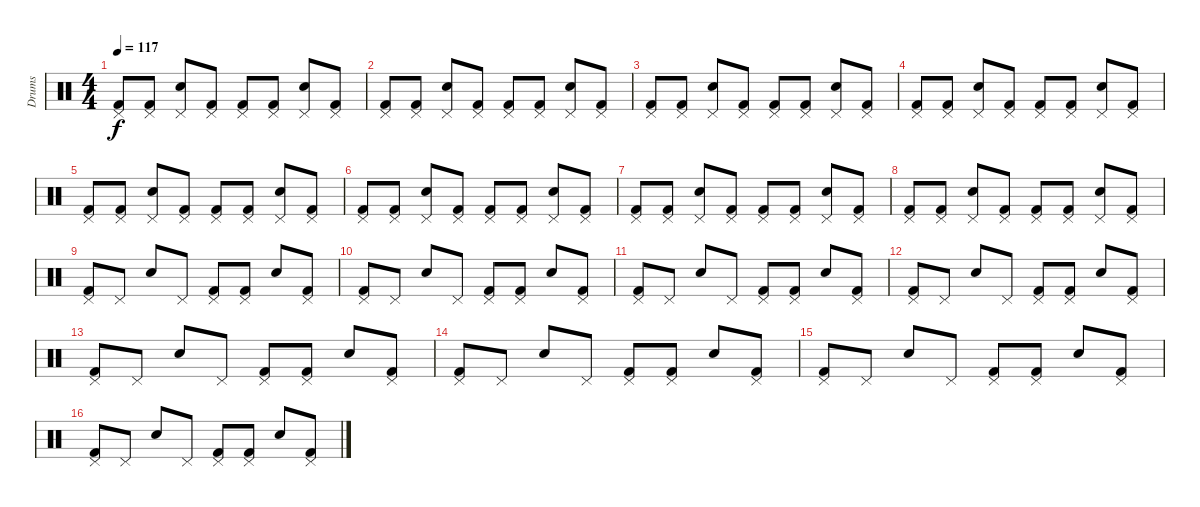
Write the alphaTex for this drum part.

\track ("Drums" "Drums") {instrument percussion}
\staff {score}
\articulation defaults
\ts (4 4)
\tempo 117
\clef neutral
\ks c
("Pedal Hi-Hat (hit)" "Kick (hit) 2").8{dy f} ("Pedal Hi-Hat (hit)" "Kick (hit) 2").8 ("Snare (hit) 2" "Pedal Hi-Hat (hit)").8 ("Pedal Hi-Hat (hit)" "Kick (hit) 2").8 ("Pedal Hi-Hat (hit)" "Kick (hit) 2").8 ("Pedal Hi-Hat (hit)" "Kick (hit) 2").8 ("Snare (hit) 2" "Pedal Hi-Hat (hit)").8 ("Pedal Hi-Hat (hit)" "Kick (hit) 2").8 |
("Pedal Hi-Hat (hit)" "Kick (hit) 2").8 ("Pedal Hi-Hat (hit)" "Kick (hit) 2").8 ("Snare (hit) 2" "Pedal Hi-Hat (hit)").8 ("Pedal Hi-Hat (hit)" "Kick (hit) 2").8 ("Pedal Hi-Hat (hit)" "Kick (hit) 2").8 ("Pedal Hi-Hat (hit)" "Kick (hit) 2").8 ("Snare (hit) 2" "Pedal Hi-Hat (hit)").8 ("Pedal Hi-Hat (hit)" "Kick (hit) 2").8 |
("Pedal Hi-Hat (hit)" "Kick (hit) 2").8 ("Pedal Hi-Hat (hit)" "Kick (hit) 2").8 ("Snare (hit) 2" "Pedal Hi-Hat (hit)").8 ("Pedal Hi-Hat (hit)" "Kick (hit) 2").8 ("Pedal Hi-Hat (hit)" "Kick (hit) 2").8 ("Pedal Hi-Hat (hit)" "Kick (hit) 2").8 ("Snare (hit) 2" "Pedal Hi-Hat (hit)").8 ("Pedal Hi-Hat (hit)" "Kick (hit) 2").8 |
("Pedal Hi-Hat (hit)" "Kick (hit) 2").8 ("Pedal Hi-Hat (hit)" "Kick (hit) 2").8 ("Snare (hit) 2" "Pedal Hi-Hat (hit)").8 ("Pedal Hi-Hat (hit)" "Kick (hit) 2").8 ("Pedal Hi-Hat (hit)" "Kick (hit) 2").8 ("Pedal Hi-Hat (hit)" "Kick (hit) 2").8 ("Snare (hit) 2" "Pedal Hi-Hat (hit)").8 ("Pedal Hi-Hat (hit)" "Kick (hit) 2").8 |
("Pedal Hi-Hat (hit)" "Kick (hit) 2").8 ("Pedal Hi-Hat (hit)" "Kick (hit) 2").8 ("Snare (hit) 2" "Pedal Hi-Hat (hit)").8 ("Pedal Hi-Hat (hit)" "Kick (hit) 2").8 ("Pedal Hi-Hat (hit)" "Kick (hit) 2").8 ("Pedal Hi-Hat (hit)" "Kick (hit) 2").8 ("Snare (hit) 2" "Pedal Hi-Hat (hit)").8 ("Pedal Hi-Hat (hit)" "Kick (hit) 2").8 |
("Pedal Hi-Hat (hit)" "Kick (hit) 2").8 ("Pedal Hi-Hat (hit)" "Kick (hit) 2").8 ("Snare (hit) 2" "Pedal Hi-Hat (hit)").8 ("Pedal Hi-Hat (hit)" "Kick (hit) 2").8 ("Pedal Hi-Hat (hit)" "Kick (hit) 2").8 ("Pedal Hi-Hat (hit)" "Kick (hit) 2").8 ("Snare (hit) 2" "Pedal Hi-Hat (hit)").8 ("Pedal Hi-Hat (hit)" "Kick (hit) 2").8 |
("Pedal Hi-Hat (hit)" "Kick (hit) 2").8 ("Pedal Hi-Hat (hit)" "Kick (hit) 2").8 ("Snare (hit) 2" "Pedal Hi-Hat (hit)").8 ("Pedal Hi-Hat (hit)" "Kick (hit) 2").8 ("Pedal Hi-Hat (hit)" "Kick (hit) 2").8 ("Pedal Hi-Hat (hit)" "Kick (hit) 2").8 ("Snare (hit) 2" "Pedal Hi-Hat (hit)").8 ("Pedal Hi-Hat (hit)" "Kick (hit) 2").8 |
("Pedal Hi-Hat (hit)" "Kick (hit) 2").8 ("Pedal Hi-Hat (hit)" "Kick (hit) 2").8 ("Snare (hit) 2" "Pedal Hi-Hat (hit)").8 ("Pedal Hi-Hat (hit)" "Kick (hit) 2").8 ("Pedal Hi-Hat (hit)" "Kick (hit) 2").8 ("Pedal Hi-Hat (hit)" "Kick (hit) 2").8 ("Snare (hit) 2" "Pedal Hi-Hat (hit)").8 ("Pedal Hi-Hat (hit)" "Kick (hit) 2").8 |
("Pedal Hi-Hat (hit)" "Kick (hit) 2").8 "Pedal Hi-Hat (hit)".8 "Snare (hit) 2".8 "Pedal Hi-Hat (hit)".8 ("Pedal Hi-Hat (hit)" "Kick (hit) 2").8 ("Pedal Hi-Hat (hit)" "Kick (hit) 2").8 "Snare (hit) 2".8 ("Pedal Hi-Hat (hit)" "Kick (hit) 2").8 |
("Pedal Hi-Hat (hit)" "Kick (hit) 2").8 "Pedal Hi-Hat (hit)".8 "Snare (hit) 2".8 "Pedal Hi-Hat (hit)".8 ("Pedal Hi-Hat (hit)" "Kick (hit) 2").8 ("Pedal Hi-Hat (hit)" "Kick (hit) 2").8 "Snare (hit) 2".8 ("Pedal Hi-Hat (hit)" "Kick (hit) 2").8 |
("Pedal Hi-Hat (hit)" "Kick (hit) 2").8 "Pedal Hi-Hat (hit)".8 "Snare (hit) 2".8 "Pedal Hi-Hat (hit)".8 ("Pedal Hi-Hat (hit)" "Kick (hit) 2").8 ("Pedal Hi-Hat (hit)" "Kick (hit) 2").8 "Snare (hit) 2".8 ("Pedal Hi-Hat (hit)" "Kick (hit) 2").8 |
("Pedal Hi-Hat (hit)" "Kick (hit) 2").8 "Pedal Hi-Hat (hit)".8 "Snare (hit) 2".8 "Pedal Hi-Hat (hit)".8 ("Pedal Hi-Hat (hit)" "Kick (hit) 2").8 ("Pedal Hi-Hat (hit)" "Kick (hit) 2").8 "Snare (hit) 2".8 ("Pedal Hi-Hat (hit)" "Kick (hit) 2").8 |
("Pedal Hi-Hat (hit)" "Kick (hit) 2").8 "Pedal Hi-Hat (hit)".8 "Snare (hit) 2".8 "Pedal Hi-Hat (hit)".8 ("Pedal Hi-Hat (hit)" "Kick (hit) 2").8 ("Pedal Hi-Hat (hit)" "Kick (hit) 2").8 "Snare (hit) 2".8 ("Pedal Hi-Hat (hit)" "Kick (hit) 2").8 |
("Pedal Hi-Hat (hit)" "Kick (hit) 2").8 "Pedal Hi-Hat (hit)".8 "Snare (hit) 2".8 "Pedal Hi-Hat (hit)".8 ("Pedal Hi-Hat (hit)" "Kick (hit) 2").8 ("Pedal Hi-Hat (hit)" "Kick (hit) 2").8 "Snare (hit) 2".8 ("Pedal Hi-Hat (hit)" "Kick (hit) 2").8 |
("Pedal Hi-Hat (hit)" "Kick (hit) 2").8 "Pedal Hi-Hat (hit)".8 "Snare (hit) 2".8 "Pedal Hi-Hat (hit)".8 ("Pedal Hi-Hat (hit)" "Kick (hit) 2").8 ("Pedal Hi-Hat (hit)" "Kick (hit) 2").8 "Snare (hit) 2".8 ("Pedal Hi-Hat (hit)" "Kick (hit) 2").8 |
("Pedal Hi-Hat (hit)" "Kick (hit) 2").8 "Pedal Hi-Hat (hit)".8 "Snare (hit) 2".8 "Pedal Hi-Hat (hit)".8 ("Pedal Hi-Hat (hit)" "Kick (hit) 2").8 ("Pedal Hi-Hat (hit)" "Kick (hit) 2").8 "Snare (hit) 2".8 ("Pedal Hi-Hat (hit)" "Kick (hit) 2").8
